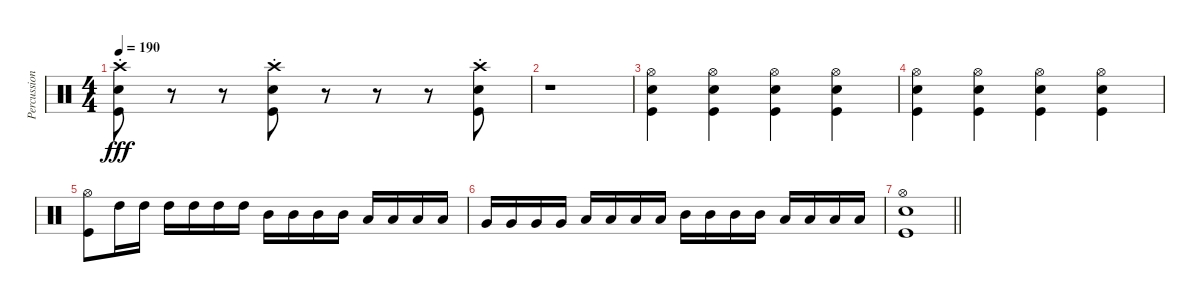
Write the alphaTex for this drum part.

\track ("Percussioni" "Percussion") {instrument percussion}
\staff {score}
\articulation defaults
\ts (4 4)
\tempo 190
\clef neutral
\ks c
("Snare (hit) 2"{st} "Kick (hit)"{st} "Crash high (hit)"{st}).8{dy fff} r.8 r.8 ("Snare (hit) 2"{st} "Kick (hit)"{st} "Crash high (hit)"{st}).8 r.8 r.8 r.8 ("Snare (hit) 2"{st} "Kick (hit)"{st} "Crash high (hit)"{st}).8 |
r.1 |
("Kick (hit)" "Snare (hit) 2" "Hi-Hat (open)").4 ("Kick (hit)" "Snare (hit) 2" "Hi-Hat (open)").4 ("Kick (hit)" "Snare (hit) 2" "Hi-Hat (open)").4 ("Kick (hit)" "Snare (hit) 2" "Hi-Hat (open)").4 |
("Kick (hit)" "Snare (hit) 2" "Hi-Hat (open)").4 ("Kick (hit)" "Snare (hit) 2" "Hi-Hat (open)").4 ("Kick (hit)" "Snare (hit) 2" "Hi-Hat (open)").4 ("Kick (hit)" "Snare (hit) 2" "Hi-Hat (open)").4 |
("Kick (hit)" "Hi-Hat (open)").8 "High Tom (hit)".16 "High Tom (hit)".16 "High Tom (hit)".16 "High Tom (hit)".16 "High Tom (hit)".16 "High Tom (hit)".16 "Mid Tom (hit)".16 "Mid Tom (hit)".16 "Mid Tom (hit)".16 "Mid Tom (hit)".16 "Low Tom (hit)".16 "Low Tom (hit)".16 "Low Tom (hit)".16 "Low Tom (hit)".16 |
"Very Low Tom (hit)".16 "Very Low Tom (hit)".16 "Very Low Tom (hit)".16 "Very Low Tom (hit)".16 "Low Tom (hit)".16 "Low Tom (hit)".16 "Low Tom (hit)".16 "Low Tom (hit)".16 "Mid Tom (hit)".16 "Mid Tom (hit)".16 "Mid Tom (hit)".16 "Mid Tom (hit)".16 "Low Tom (hit)".16 "Low Tom (hit)".16 "Low Tom (hit)".16 "Low Tom (hit)".16 |
\barLineRight lightlight
("Kick (hit)" "Snare (hit) 2" "Hi-Hat (open)").1
